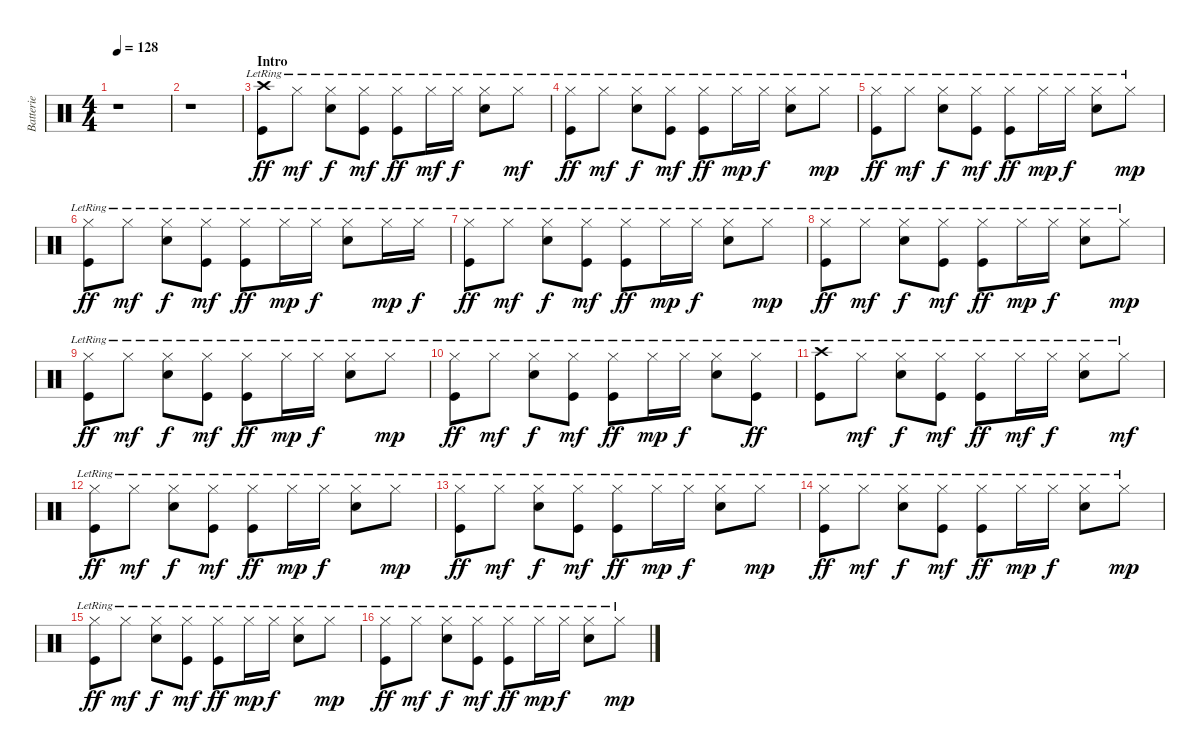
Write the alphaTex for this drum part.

\track ("Batterie" "Batterie") {instrument percussion}
\staff {score}
\articulation defaults
\ts (4 4)
\tempo 128
\clef neutral
\ks c
r.1{dy ff} |
r.1 |
\section ("" "Intro")
("Crash high (hit)"{lr} "Kick (hit)"{lr}).8 "Hi-Hat (closed)"{lr}.8{dy mf} ("Hi-Hat (closed)"{lr} "Snare (hit) 2"{lr}).8{dy f} ("Hi-Hat (closed)"{lr} "Kick (hit)"{lr}).8{dy mf} ("Hi-Hat (closed)"{lr} "Kick (hit)"{lr}).8{dy ff} "Hi-Hat (closed)"{lr}.16{dy mf} "Hi-Hat (closed)"{lr}.16{dy f} ("Hi-Hat (closed)"{lr} "Snare (hit) 2"{lr}).8 "Hi-Hat (closed)"{lr}.8{dy mf} |
("Hi-Hat (closed)"{lr} "Kick (hit)"{lr}).8{dy ff} "Hi-Hat (closed)"{lr}.8{dy mf} ("Hi-Hat (closed)"{lr} "Snare (hit) 2"{lr}).8{dy f} ("Hi-Hat (closed)"{lr} "Kick (hit)"{lr}).8{dy mf} ("Hi-Hat (closed)"{lr} "Kick (hit)"{lr}).8{dy ff} "Hi-Hat (closed)"{lr}.16{dy mp} "Hi-Hat (closed)"{lr}.16{dy f} ("Hi-Hat (closed)"{lr} "Snare (hit) 2"{lr}).8 "Hi-Hat (closed)"{lr}.8{dy mp} |
("Hi-Hat (closed)"{lr} "Kick (hit)"{lr}).8{dy ff} "Hi-Hat (closed)"{lr}.8{dy mf} ("Hi-Hat (closed)"{lr} "Snare (hit) 2"{lr}).8{dy f} ("Hi-Hat (closed)"{lr} "Kick (hit)"{lr}).8{dy mf} ("Hi-Hat (closed)"{lr} "Kick (hit)"{lr}).8{dy ff} "Hi-Hat (closed)"{lr}.16{dy mp} "Hi-Hat (closed)"{lr}.16{dy f} ("Hi-Hat (closed)"{lr} "Snare (hit) 2"{lr}).8 "Hi-Hat (closed)"{lr}.8{dy mp} |
("Hi-Hat (closed)"{lr} "Kick (hit)"{lr}).8{dy ff} "Hi-Hat (closed)"{lr}.8{dy mf} ("Hi-Hat (closed)"{lr} "Snare (hit) 2"{lr}).8{dy f} ("Hi-Hat (closed)"{lr} "Kick (hit)"{lr}).8{dy mf} ("Hi-Hat (closed)"{lr} "Kick (hit)"{lr}).8{dy ff} "Hi-Hat (closed)"{lr}.16{dy mp} "Hi-Hat (closed)"{lr}.16{dy f} ("Hi-Hat (closed)"{lr} "Snare (hit) 2"{lr}).8 "Hi-Hat (closed)"{lr}.16{dy mp} "Hi-Hat (closed)"{lr}.16{dy f} |
("Hi-Hat (closed)"{lr} "Kick (hit)"{lr}).8{dy ff} "Hi-Hat (closed)"{lr}.8{dy mf} ("Hi-Hat (closed)"{lr} "Snare (hit) 2"{lr}).8{dy f} ("Hi-Hat (closed)"{lr} "Kick (hit)"{lr}).8{dy mf} ("Hi-Hat (closed)"{lr} "Kick (hit)"{lr}).8{dy ff} "Hi-Hat (closed)"{lr}.16{dy mp} "Hi-Hat (closed)"{lr}.16{dy f} ("Hi-Hat (closed)"{lr} "Snare (hit) 2"{lr}).8 "Hi-Hat (closed)"{lr}.8{dy mp} |
("Hi-Hat (closed)"{lr} "Kick (hit)"{lr}).8{dy ff} "Hi-Hat (closed)"{lr}.8{dy mf} ("Hi-Hat (closed)"{lr} "Snare (hit) 2"{lr}).8{dy f} ("Hi-Hat (closed)"{lr} "Kick (hit)"{lr}).8{dy mf} ("Hi-Hat (closed)"{lr} "Kick (hit)"{lr}).8{dy ff} "Hi-Hat (closed)"{lr}.16{dy mp} "Hi-Hat (closed)"{lr}.16{dy f} ("Hi-Hat (closed)"{lr} "Snare (hit) 2"{lr}).8 "Hi-Hat (closed)"{lr}.8{dy mp} |
("Hi-Hat (closed)"{lr} "Kick (hit)"{lr}).8{dy ff} "Hi-Hat (closed)"{lr}.8{dy mf} ("Hi-Hat (closed)"{lr} "Snare (hit) 2"{lr}).8{dy f} ("Hi-Hat (closed)"{lr} "Kick (hit)"{lr}).8{dy mf} ("Hi-Hat (closed)"{lr} "Kick (hit)"{lr}).8{dy ff} "Hi-Hat (closed)"{lr}.16{dy mp} "Hi-Hat (closed)"{lr}.16{dy f} ("Hi-Hat (closed)"{lr} "Snare (hit) 2"{lr}).8 "Hi-Hat (closed)"{lr}.8{dy mp} |
("Hi-Hat (closed)"{lr} "Kick (hit)"{lr}).8{dy ff} "Hi-Hat (closed)"{lr}.8{dy mf} ("Hi-Hat (closed)"{lr} "Snare (hit) 2"{lr}).8{dy f} ("Hi-Hat (closed)"{lr} "Kick (hit)"{lr}).8{dy mf} ("Hi-Hat (closed)"{lr} "Kick (hit)"{lr}).8{dy ff} "Hi-Hat (closed)"{lr}.16{dy mp} "Hi-Hat (closed)"{lr}.16{dy f} ("Hi-Hat (closed)"{lr} "Snare (hit) 2"{lr}).8 ("Hi-Hat (closed)"{lr} "Kick (hit)"{lr}).8{dy ff} |
("Crash high (hit)"{lr} "Kick (hit)"{lr}).8 "Hi-Hat (closed)"{lr}.8{dy mf} ("Hi-Hat (closed)"{lr} "Snare (hit) 2"{lr}).8{dy f} ("Hi-Hat (closed)"{lr} "Kick (hit)"{lr}).8{dy mf} ("Hi-Hat (closed)"{lr} "Kick (hit)"{lr}).8{dy ff} "Hi-Hat (closed)"{lr}.16{dy mf} "Hi-Hat (closed)"{lr}.16{dy f} ("Hi-Hat (closed)"{lr} "Snare (hit) 2"{lr}).8 "Hi-Hat (closed)"{lr}.8{dy mf} |
("Hi-Hat (closed)"{lr} "Kick (hit)"{lr}).8{dy ff} "Hi-Hat (closed)"{lr}.8{dy mf} ("Hi-Hat (closed)"{lr} "Snare (hit) 2"{lr}).8{dy f} ("Hi-Hat (closed)"{lr} "Kick (hit)"{lr}).8{dy mf} ("Hi-Hat (closed)"{lr} "Kick (hit)"{lr}).8{dy ff} "Hi-Hat (closed)"{lr}.16{dy mp} "Hi-Hat (closed)"{lr}.16{dy f} ("Hi-Hat (closed)"{lr} "Snare (hit) 2"{lr}).8 "Hi-Hat (closed)"{lr}.8{dy mp} |
("Hi-Hat (closed)"{lr} "Kick (hit)"{lr}).8{dy ff} "Hi-Hat (closed)"{lr}.8{dy mf} ("Hi-Hat (closed)"{lr} "Snare (hit) 2"{lr}).8{dy f} ("Hi-Hat (closed)"{lr} "Kick (hit)"{lr}).8{dy mf} ("Hi-Hat (closed)"{lr} "Kick (hit)"{lr}).8{dy ff} "Hi-Hat (closed)"{lr}.16{dy mp} "Hi-Hat (closed)"{lr}.16{dy f} ("Hi-Hat (closed)"{lr} "Snare (hit) 2"{lr}).8 "Hi-Hat (closed)"{lr}.8{dy mp} |
("Hi-Hat (closed)"{lr} "Kick (hit)"{lr}).8{dy ff} "Hi-Hat (closed)"{lr}.8{dy mf} ("Hi-Hat (closed)"{lr} "Snare (hit) 2"{lr}).8{dy f} ("Hi-Hat (closed)"{lr} "Kick (hit)"{lr}).8{dy mf} ("Hi-Hat (closed)"{lr} "Kick (hit)"{lr}).8{dy ff} "Hi-Hat (closed)"{lr}.16{dy mp} "Hi-Hat (closed)"{lr}.16{dy f} ("Hi-Hat (closed)"{lr} "Snare (hit) 2"{lr}).8 "Hi-Hat (closed)"{lr}.8{dy mp} |
("Hi-Hat (closed)"{lr} "Kick (hit)"{lr}).8{dy ff} "Hi-Hat (closed)"{lr}.8{dy mf} ("Hi-Hat (closed)"{lr} "Snare (hit) 2"{lr}).8{dy f} ("Hi-Hat (closed)"{lr} "Kick (hit)"{lr}).8{dy mf} ("Hi-Hat (closed)"{lr} "Kick (hit)"{lr}).8{dy ff} "Hi-Hat (closed)"{lr}.16{dy mp} "Hi-Hat (closed)"{lr}.16{dy f} ("Hi-Hat (closed)"{lr} "Snare (hit) 2"{lr}).8 "Hi-Hat (closed)"{lr}.8{dy mp} |
("Hi-Hat (closed)"{lr} "Kick (hit)"{lr}).8{dy ff} "Hi-Hat (closed)"{lr}.8{dy mf} ("Hi-Hat (closed)"{lr} "Snare (hit) 2"{lr}).8{dy f} ("Hi-Hat (closed)"{lr} "Kick (hit)"{lr}).8{dy mf} ("Hi-Hat (closed)"{lr} "Kick (hit)"{lr}).8{dy ff} "Hi-Hat (closed)"{lr}.16{dy mp} "Hi-Hat (closed)"{lr}.16{dy f} ("Hi-Hat (closed)"{lr} "Snare (hit) 2"{lr}).8 "Hi-Hat (closed)"{lr}.8{dy mp}
